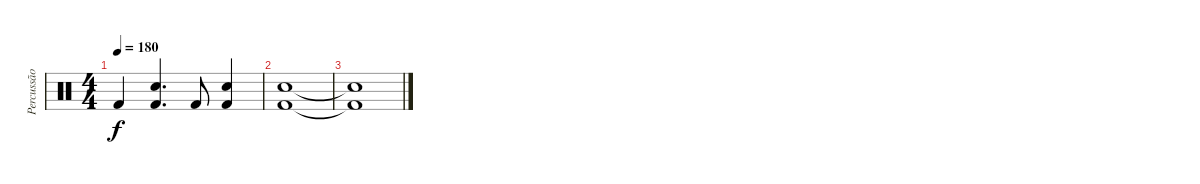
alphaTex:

\track ("Percussão" "Percussão") {instrument percussion}
\staff {score}
\articulation defaults
\ts (4 4)
\tempo 180
\clef neutral
\ks c "Kick (hit) 2".4{dy f}
("Kick (hit) 2" "Snare (hit) 2").4{d} "Kick (hit) 2".8 ("Kick (hit) 2" "Snare (hit) 2").4 |
("Kick (hit) 2" "Snare (hit) 2").1 |
("Kick (hit) 2"{t} "Snare (hit) 2"{t}).1
